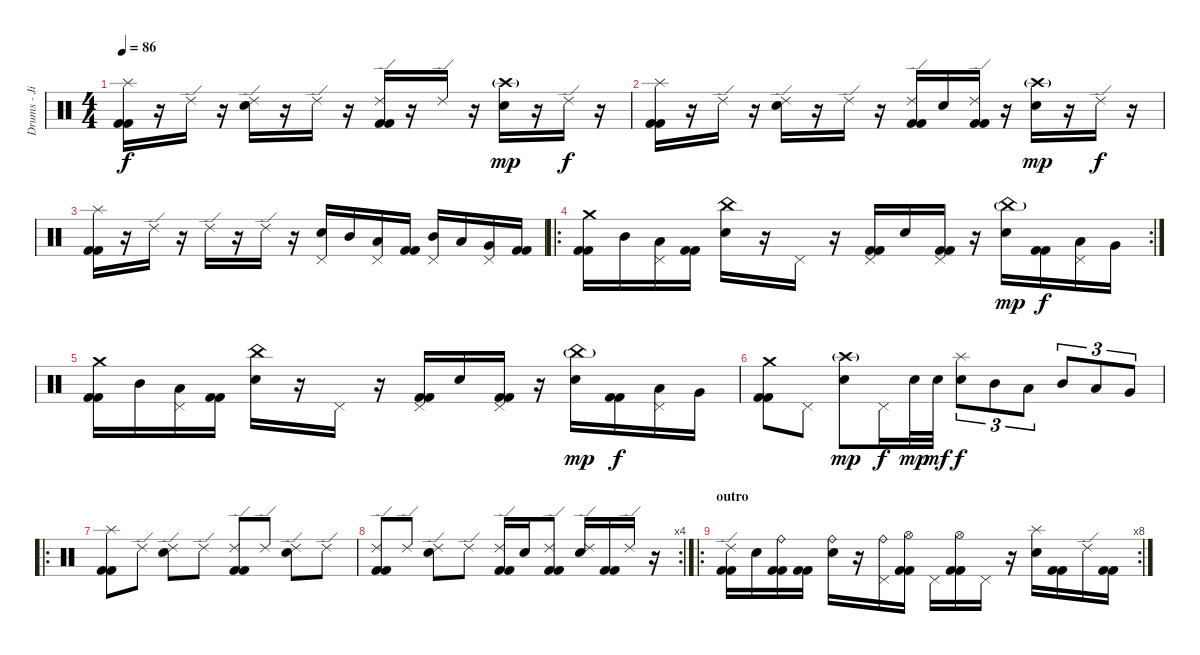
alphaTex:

\track ("Drums - Jimmy" "Drums - Ji") {instrument percussion}
\staff {score}
\articulation defaults
\ts (4 4)
\tempo 86
\clef neutral
\ks c
("Splash (hit)" "Kick (hit) 2" "Kick (hit) 2").16{dy f} r.16 "Ride (edge) 2".16 r.16 ("Ride (edge) 2" "Electric Snare (hit)").16 r.16 "Ride (edge) 2".16 r.16 ("Ride (edge) 2" "Kick (hit) 2" "Kick (hit) 2").16 r.16 "Ride (edge) 2".16 r.16 ("Crash high (hit)"{g} "Electric Snare (hit)").16{dy mp} r.16 "Ride (edge) 2".16{dy f} r.16 |
("Splash (hit)" "Kick (hit) 2" "Kick (hit) 2").16 r.16 "Ride (edge) 2".16 r.16 ("Ride (edge) 2" "Electric Snare (hit)").16 r.16 "Ride (edge) 2".16 r.16 ("Ride (edge) 2" "Kick (hit) 2" "Kick (hit) 2").16 "Electric Snare (hit)".16 ("Ride (edge) 2" "Kick (hit) 2" "Kick (hit) 2").16 r.16 ("Crash high (hit)"{g} "Electric Snare (hit)").16{dy mp} r.16 "Ride (edge) 2".16{dy f} r.16 |
("Splash (hit)" "Kick (hit) 2" "Kick (hit) 2").16 r.16 "Ride (edge) 2".16 r.16 "Ride (edge) 2".16 r.16 "Ride (edge) 2".16 r.16 ("Pedal Hi-Hat (hit)" "Electric Snare (hit)").16 "Mid Tom (hit)".16 ("Pedal Hi-Hat (hit)" "Low Tom (hit)").16 ("Kick (hit) 2" "Kick (hit) 2").16 ("Pedal Hi-Hat (hit)" "Mid Tom (hit)").16 "Low Tom (hit)".16 ("Pedal Hi-Hat (hit)" "Very Low Tom (hit)").16 ("Kick (hit) 2" "Kick (hit) 2").16 |
\ro
\rc 2
("Crash medium (hit)" "Kick (hit) 2" "Kick (hit) 2").16 "Mid Tom (hit)".16 ("Pedal Hi-Hat (hit)" "Low Tom (hit)").16 ("Kick (hit) 2" "Kick (hit) 2").16 ("China (hit)" "Electric Snare (hit)").16 r.16 "Pedal Hi-Hat (hit)".16 r.16 ("Pedal Hi-Hat (hit)" "Kick (hit) 2" "Kick (hit) 2").16 "Electric Snare (hit)".16 ("Pedal Hi-Hat (hit)" "Kick (hit) 2" "Kick (hit) 2").16 r.16 ("China (hit)"{g} "Electric Snare (hit)").16{dy mp} ("Kick (hit) 2" "Kick (hit) 2").16{dy f} ("Pedal Hi-Hat (hit)" "Low Tom (hit)").16 "Very Low Tom (hit)".16 |
("Crash medium (hit)" "Kick (hit) 2" "Kick (hit) 2").16 "Mid Tom (hit)".16 ("Pedal Hi-Hat (hit)" "Low Tom (hit)").16 ("Kick (hit) 2" "Kick (hit) 2").16 ("China (hit)" "Electric Snare (hit)").16 r.16 "Pedal Hi-Hat (hit)".16 r.16 ("Pedal Hi-Hat (hit)" "Kick (hit) 2" "Kick (hit) 2").16 "Electric Snare (hit)".16 ("Pedal Hi-Hat (hit)" "Kick (hit) 2" "Kick (hit) 2").16 r.16 ("China (hit)"{g} "Electric Snare (hit)").16{dy mp} ("Kick (hit) 2" "Kick (hit) 2").16{dy f} ("Pedal Hi-Hat (hit)" "Low Tom (hit)").16 "Very Low Tom (hit)".16 |
("Crash medium (hit)" "Kick (hit) 2" "Kick (hit) 2").8 "Pedal Hi-Hat (hit)".8 ("Crash high (hit)"{g} "Electric Snare (hit)").8{dy mp} "Pedal Hi-Hat (hit)".16{dy f} "Electric Snare (hit)".32{dy mp} "Electric Snare (hit)".32{dy mf} ("Splash (hit)" "Electric Snare (hit)").8{tu (3 2) dy f} "Mid Tom (hit)".8{tu (3 2)} "Low Tom (hit)".8{tu (3 2)} "Mid Tom (hit)".8{tu (3 2)} "Low Tom (hit)".8{tu (3 2)} "Very Low Tom (hit)".8{tu (3 2)} |
\ro
("Splash (hit)" "Kick (hit) 2" "Kick (hit) 2").8 "Ride (edge) 2".8 ("Ride (edge) 2" "Electric Snare (hit)").8 "Ride (edge) 2".8 ("Ride (edge) 2" "Kick (hit) 2" "Kick (hit) 2").8 "Ride (edge) 2".8 ("Ride (edge) 2" "Electric Snare (hit)").8 "Ride (edge) 2".8 |
\rc 4
("Ride (edge) 2" "Kick (hit) 2" "Kick (hit) 2").8 "Ride (edge) 2".8 ("Ride (edge) 2" "Electric Snare (hit)").8 "Ride (edge) 2".8 ("Ride (edge) 2" "Kick (hit) 2" "Kick (hit) 2").16 "Electric Snare (hit)".16 ("Ride (edge) 2" "Kick (hit) 2" "Kick (hit) 2").8 ("Ride (edge) 2" "Electric Snare (hit)").16 ("Kick (hit) 2" "Kick (hit) 2").16 "Ride (edge) 2".16 r.16 |
\ro
\rc 8
\section ("" "outro")
("Ride (edge) 2" "Kick (hit) 2" "Kick (hit) 2").16 "Electric Snare (hit)".16 ("Ride (bell)" "Kick (hit) 2" "Kick (hit) 2").16 ("Kick (hit) 2" "Kick (hit) 2").16 ("Ride (bell)" "Electric Snare (hit)").16 r.16 ("Pedal Hi-Hat (hit)" "Ride (bell)").16 ("Hi-Hat (open)" "Kick (hit) 2" "Kick (hit) 2").16 "Pedal Hi-Hat (hit)".16 ("Hi-Hat (open)" "Kick (hit) 2" "Kick (hit) 2").16 "Pedal Hi-Hat (hit)".16 r.16 ("Splash (hit)" "Electric Snare (hit)").16 ("Kick (hit) 2" "Kick (hit) 2").16 "Ride (edge) 2".16 ("Kick (hit) 2" "Kick (hit) 2").16
